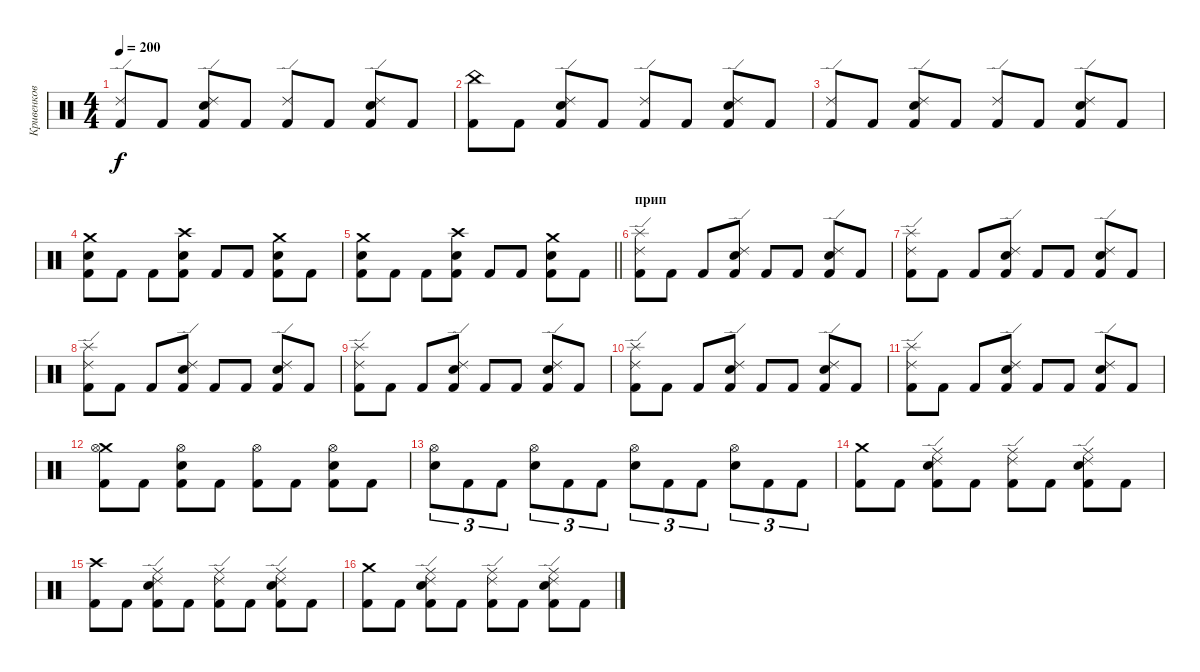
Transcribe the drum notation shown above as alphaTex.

\track ("Кривенков" "Кривенков") {instrument percussion}
\staff {score}
\articulation defaults
\ts (4 4)
\tempo 200
\clef neutral
\ks c
("Ride (edge) 2" "Kick (hit) 2").8{dy f} "Kick (hit) 2".8 ("Ride (edge) 2" "Electric Snare (hit)" "Kick (hit) 2").8 "Kick (hit) 2".8 ("Ride (edge) 2" "Kick (hit) 2").8 "Kick (hit) 2".8 ("Ride (edge) 2" "Electric Snare (hit)" "Kick (hit) 2").8 "Kick (hit) 2".8 |
("China (hit)" "Kick (hit) 2").8 "Kick (hit) 2".8 ("Ride (edge) 2" "Electric Snare (hit)" "Kick (hit) 2").8 "Kick (hit) 2".8 ("Ride (edge) 2" "Kick (hit) 2").8 "Kick (hit) 2".8 ("Ride (edge) 2" "Electric Snare (hit)" "Kick (hit) 2").8 "Kick (hit) 2".8 |
("Ride (edge) 2" "Kick (hit) 2").8 "Kick (hit) 2".8 ("Ride (edge) 2" "Electric Snare (hit)" "Kick (hit) 2").8 "Kick (hit) 2".8 ("Ride (edge) 2" "Kick (hit) 2").8 "Kick (hit) 2".8 ("Ride (edge) 2" "Electric Snare (hit)" "Kick (hit) 2").8 "Kick (hit) 2".8 |
("Crash medium (hit)" "Electric Snare (hit)" "Kick (hit) 2").8 "Kick (hit) 2".8 "Kick (hit) 2".8 ("Crash high (hit)" "Electric Snare (hit)" "Kick (hit) 2").8 "Kick (hit) 2".8 "Kick (hit) 2".8 ("Crash medium (hit)" "Electric Snare (hit)" "Kick (hit) 2").8 "Kick (hit) 2".8 |
\barLineRight lightlight
("Crash medium (hit)" "Electric Snare (hit)" "Kick (hit) 2").8 "Kick (hit) 2".8 "Kick (hit) 2".8 ("Crash high (hit)" "Electric Snare (hit)" "Kick (hit) 2").8 "Kick (hit) 2".8 "Kick (hit) 2".8 ("Crash medium (hit)" "Electric Snare (hit)" "Kick (hit) 2").8 "Kick (hit) 2".8 |
\section ("" "прип")
("Splash (hit)" "Ride (edge) 2" "Kick (hit) 2").8 "Kick (hit) 2".8 "Kick (hit) 2".8 ("Ride (edge) 2" "Electric Snare (hit)" "Kick (hit) 2").8 "Kick (hit) 2".8 "Kick (hit) 2".8 ("Ride (edge) 2" "Electric Snare (hit)" "Kick (hit) 2").8 "Kick (hit) 2".8 |
("Splash (hit)" "Ride (edge) 2" "Kick (hit) 2").8 "Kick (hit) 2".8 "Kick (hit) 2".8 ("Ride (edge) 2" "Electric Snare (hit)" "Kick (hit) 2").8 "Kick (hit) 2".8 "Kick (hit) 2".8 ("Ride (edge) 2" "Electric Snare (hit)" "Kick (hit) 2").8 "Kick (hit) 2".8 |
("Splash (hit)" "Ride (edge) 2" "Kick (hit) 2").8 "Kick (hit) 2".8 "Kick (hit) 2".8 ("Ride (edge) 2" "Electric Snare (hit)" "Kick (hit) 2").8 "Kick (hit) 2".8 "Kick (hit) 2".8 ("Ride (edge) 2" "Electric Snare (hit)" "Kick (hit) 2").8 "Kick (hit) 2".8 |
("Splash (hit)" "Ride (edge) 2" "Kick (hit) 2").8 "Kick (hit) 2".8 "Kick (hit) 2".8 ("Ride (edge) 2" "Electric Snare (hit)" "Kick (hit) 2").8 "Kick (hit) 2".8 "Kick (hit) 2".8 ("Ride (edge) 2" "Electric Snare (hit)" "Kick (hit) 2").8 "Kick (hit) 2".8 |
("Splash (hit)" "Ride (edge) 2" "Kick (hit) 2").8 "Kick (hit) 2".8 "Kick (hit) 2".8 ("Ride (edge) 2" "Electric Snare (hit)" "Kick (hit) 2").8 "Kick (hit) 2".8 "Kick (hit) 2".8 ("Ride (edge) 2" "Electric Snare (hit)" "Kick (hit) 2").8 "Kick (hit) 2".8 |
("Splash (hit)" "Ride (edge) 2" "Kick (hit) 2").8 "Kick (hit) 2".8 "Kick (hit) 2".8 ("Ride (edge) 2" "Electric Snare (hit)" "Kick (hit) 2").8 "Kick (hit) 2".8 "Kick (hit) 2".8 ("Ride (edge) 2" "Electric Snare (hit)" "Kick (hit) 2").8 "Kick (hit) 2".8 |
("Crash medium (hit)" "Hi-Hat (open)" "Kick (hit) 2").8 "Kick (hit) 2".8 ("Hi-Hat (open)" "Electric Snare (hit)" "Kick (hit) 2").8 "Kick (hit) 2".8 ("Hi-Hat (open)" "Kick (hit) 2").8 "Kick (hit) 2".8 ("Hi-Hat (open)" "Electric Snare (hit)" "Kick (hit) 2").8 "Kick (hit) 2".8 |
("Hi-Hat (open)" "Electric Snare (hit)").8{tu (3 2)} "Kick (hit) 2".8{tu (3 2)} "Kick (hit) 2".8{tu (3 2)} ("Hi-Hat (open)" "Electric Snare (hit)").8{tu (3 2)} "Kick (hit) 2".8{tu (3 2)} "Kick (hit) 2".8{tu (3 2)} ("Hi-Hat (open)" "Electric Snare (hit)").8{tu (3 2)} "Kick (hit) 2".8{tu (3 2)} "Kick (hit) 2".8{tu (3 2)} ("Hi-Hat (open)" "Electric Snare (hit)").8{tu (3 2)} "Kick (hit) 2".8{tu (3 2)} "Kick (hit) 2".8{tu (3 2)} |
("Crash medium (hit)" "Kick (hit) 2").8 "Kick (hit) 2".8 ("Ride (edge) 2" "Ride (middle)" "Electric Snare (hit)" "Kick (hit) 2").8 "Kick (hit) 2".8 ("Ride (edge) 2" "Ride (middle)" "Kick (hit) 2").8 "Kick (hit) 2".8 ("Ride (edge) 2" "Ride (middle)" "Electric Snare (hit)" "Kick (hit) 2").8 "Kick (hit) 2".8 |
("Crash high (hit)" "Kick (hit) 2").8 "Kick (hit) 2".8 ("Ride (edge) 2" "Ride (middle)" "Electric Snare (hit)" "Kick (hit) 2").8 "Kick (hit) 2".8 ("Ride (edge) 2" "Ride (middle)" "Kick (hit) 2").8 "Kick (hit) 2".8 ("Ride (edge) 2" "Ride (middle)" "Electric Snare (hit)" "Kick (hit) 2").8 "Kick (hit) 2".8 |
("Crash medium (hit)" "Kick (hit) 2").8 "Kick (hit) 2".8 ("Ride (edge) 2" "Ride (middle)" "Electric Snare (hit)" "Kick (hit) 2").8 "Kick (hit) 2".8 ("Ride (edge) 2" "Ride (middle)" "Kick (hit) 2").8 "Kick (hit) 2".8 ("Ride (edge) 2" "Ride (middle)" "Electric Snare (hit)" "Kick (hit) 2").8 "Kick (hit) 2".8
